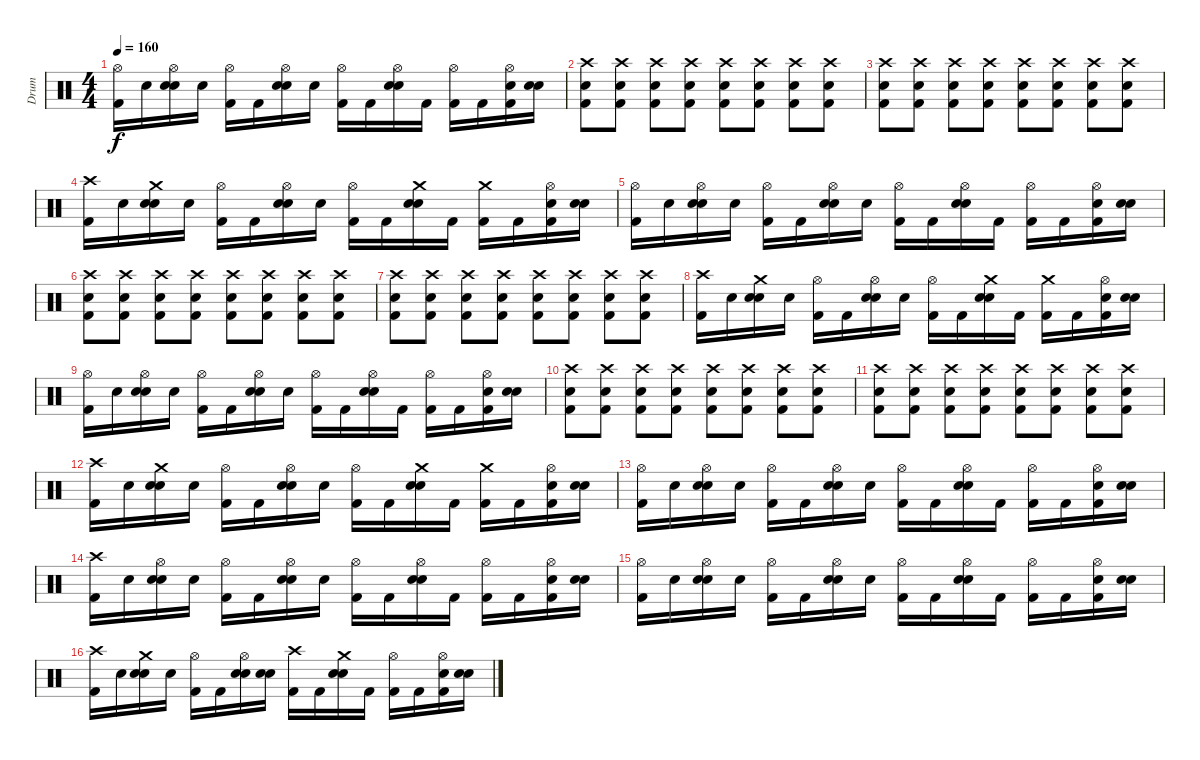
\track ("Drum" "Drum") {instrument percussion}
\staff {score}
\articulation defaults
\ts (4 4)
\tempo 160
\clef neutral
\ks c
("Hi-Hat (open)" "Kick (hit) 2").16{dy f} "Snare (hit)"{x}.16 ("Hi-Hat (open)" "Electric Snare (hit)" "Snare (hit)"{x}).16 "Snare (hit)"{x}.16 ("Hi-Hat (open)" "Kick (hit) 2").16 "Kick (hit) 2".16 ("Hi-Hat (open)" "Electric Snare (hit)" "Snare (hit)"{x}).16 "Snare (hit)"{x}.16 ("Hi-Hat (open)" "Kick (hit) 2").16 "Kick (hit) 2".16 ("Hi-Hat (open)" "Electric Snare (hit)" "Snare (hit)"{x}).16 "Kick (hit) 2".16 ("Hi-Hat (open)" "Kick (hit) 2"{x}).16 "Kick (hit) 2".16 ("Hi-Hat (open)" "Electric Snare (hit)" "Kick (hit) 2"{x}).16 ("Electric Snare (hit)" "Snare (hit)"{x}).16 |
("Crash high (hit)" "Electric Snare (hit)" "Kick (hit) 2").8 ("Crash high (hit)" "Electric Snare (hit)" "Kick (hit) 2").8 ("Crash high (hit)" "Electric Snare (hit)" "Kick (hit) 2").8 ("Crash high (hit)" "Electric Snare (hit)" "Kick (hit) 2").8 ("Crash high (hit)" "Electric Snare (hit)" "Kick (hit) 2").8 ("Crash high (hit)" "Electric Snare (hit)" "Kick (hit) 2").8 ("Crash high (hit)" "Electric Snare (hit)" "Kick (hit) 2").8 ("Crash high (hit)" "Electric Snare (hit)" "Kick (hit) 2").8 |
("Crash high (hit)" "Electric Snare (hit)" "Kick (hit) 2").8 ("Crash high (hit)" "Electric Snare (hit)" "Kick (hit) 2").8 ("Crash high (hit)" "Electric Snare (hit)" "Kick (hit) 2").8 ("Crash high (hit)" "Electric Snare (hit)" "Kick (hit) 2").8 ("Crash high (hit)" "Electric Snare (hit)" "Kick (hit) 2").8 ("Crash high (hit)" "Electric Snare (hit)" "Kick (hit) 2").8 ("Crash high (hit)" "Electric Snare (hit)" "Kick (hit) 2").8 ("Crash high (hit)" "Electric Snare (hit)" "Kick (hit) 2").8 |
("Crash high (hit)" "Kick (hit) 2").16 "Snare (hit)"{x}.16 ("Crash medium (hit)" "Electric Snare (hit)" "Snare (hit)"{x}).16 "Snare (hit)"{x}.16 ("Hi-Hat (open)" "Kick (hit) 2").16 "Kick (hit) 2".16 ("Hi-Hat (open)" "Electric Snare (hit)" "Snare (hit)"{x}).16 "Snare (hit)"{x}.16 ("Hi-Hat (open)" "Kick (hit) 2").16 "Kick (hit) 2".16 ("Crash medium (hit)" "Electric Snare (hit)" "Snare (hit)"{x}).16 "Kick (hit) 2".16 ("Crash medium (hit)" "Kick (hit) 2"{x}).16 "Kick (hit) 2".16 ("Hi-Hat (open)" "Electric Snare (hit)" "Kick (hit) 2"{x}).16 ("Electric Snare (hit)" "Snare (hit)"{x}).16 |
("Hi-Hat (open)" "Kick (hit) 2").16 "Snare (hit)"{x}.16 ("Hi-Hat (open)" "Electric Snare (hit)" "Snare (hit)"{x}).16 "Snare (hit)"{x}.16 ("Hi-Hat (open)" "Kick (hit) 2").16 "Kick (hit) 2".16 ("Hi-Hat (open)" "Electric Snare (hit)" "Snare (hit)"{x}).16 "Snare (hit)"{x}.16 ("Hi-Hat (open)" "Kick (hit) 2").16 "Kick (hit) 2".16 ("Hi-Hat (open)" "Electric Snare (hit)" "Snare (hit)"{x}).16 "Kick (hit) 2".16 ("Hi-Hat (open)" "Kick (hit) 2"{x}).16 "Kick (hit) 2".16 ("Hi-Hat (open)" "Electric Snare (hit)" "Kick (hit) 2"{x}).16 ("Electric Snare (hit)" "Snare (hit)"{x}).16 |
("Crash high (hit)" "Electric Snare (hit)" "Kick (hit) 2").8 ("Crash high (hit)" "Electric Snare (hit)" "Kick (hit) 2").8 ("Crash high (hit)" "Electric Snare (hit)" "Kick (hit) 2").8 ("Crash high (hit)" "Electric Snare (hit)" "Kick (hit) 2").8 ("Crash high (hit)" "Electric Snare (hit)" "Kick (hit) 2").8 ("Crash high (hit)" "Electric Snare (hit)" "Kick (hit) 2").8 ("Crash high (hit)" "Electric Snare (hit)" "Kick (hit) 2").8 ("Crash high (hit)" "Electric Snare (hit)" "Kick (hit) 2").8 |
("Crash high (hit)" "Electric Snare (hit)" "Kick (hit) 2").8 ("Crash high (hit)" "Electric Snare (hit)" "Kick (hit) 2").8 ("Crash high (hit)" "Electric Snare (hit)" "Kick (hit) 2").8 ("Crash high (hit)" "Electric Snare (hit)" "Kick (hit) 2").8 ("Crash high (hit)" "Electric Snare (hit)" "Kick (hit) 2").8 ("Crash high (hit)" "Electric Snare (hit)" "Kick (hit) 2").8 ("Crash high (hit)" "Electric Snare (hit)" "Kick (hit) 2").8 ("Crash high (hit)" "Electric Snare (hit)" "Kick (hit) 2").8 |
("Crash high (hit)" "Kick (hit) 2").16 "Snare (hit)"{x}.16 ("Crash medium (hit)" "Electric Snare (hit)" "Snare (hit)"{x}).16 "Snare (hit)"{x}.16 ("Hi-Hat (open)" "Kick (hit) 2").16 "Kick (hit) 2".16 ("Hi-Hat (open)" "Electric Snare (hit)" "Snare (hit)"{x}).16 "Snare (hit)"{x}.16 ("Hi-Hat (open)" "Kick (hit) 2").16 "Kick (hit) 2".16 ("Crash medium (hit)" "Electric Snare (hit)" "Snare (hit)"{x}).16 "Kick (hit) 2".16 ("Crash medium (hit)" "Kick (hit) 2"{x}).16 "Kick (hit) 2".16 ("Hi-Hat (open)" "Electric Snare (hit)" "Kick (hit) 2"{x}).16 ("Electric Snare (hit)" "Snare (hit)"{x}).16 |
("Hi-Hat (open)" "Kick (hit) 2").16 "Snare (hit)"{x}.16 ("Hi-Hat (open)" "Electric Snare (hit)" "Snare (hit)"{x}).16 "Snare (hit)"{x}.16 ("Hi-Hat (open)" "Kick (hit) 2").16 "Kick (hit) 2".16 ("Hi-Hat (open)" "Electric Snare (hit)" "Snare (hit)"{x}).16 "Snare (hit)"{x}.16 ("Hi-Hat (open)" "Kick (hit) 2").16 "Kick (hit) 2".16 ("Hi-Hat (open)" "Electric Snare (hit)" "Snare (hit)"{x}).16 "Kick (hit) 2".16 ("Hi-Hat (open)" "Kick (hit) 2"{x}).16 "Kick (hit) 2".16 ("Hi-Hat (open)" "Electric Snare (hit)" "Kick (hit) 2"{x}).16 ("Electric Snare (hit)" "Snare (hit)"{x}).16 |
("Crash high (hit)" "Electric Snare (hit)" "Kick (hit) 2").8 ("Crash high (hit)" "Electric Snare (hit)" "Kick (hit) 2").8 ("Crash high (hit)" "Electric Snare (hit)" "Kick (hit) 2").8 ("Crash high (hit)" "Electric Snare (hit)" "Kick (hit) 2").8 ("Crash high (hit)" "Electric Snare (hit)" "Kick (hit) 2").8 ("Crash high (hit)" "Electric Snare (hit)" "Kick (hit) 2").8 ("Crash high (hit)" "Electric Snare (hit)" "Kick (hit) 2").8 ("Crash high (hit)" "Electric Snare (hit)" "Kick (hit) 2").8 |
("Crash high (hit)" "Electric Snare (hit)" "Kick (hit) 2").8 ("Crash high (hit)" "Electric Snare (hit)" "Kick (hit) 2").8 ("Crash high (hit)" "Electric Snare (hit)" "Kick (hit) 2").8 ("Crash high (hit)" "Electric Snare (hit)" "Kick (hit) 2").8 ("Crash high (hit)" "Electric Snare (hit)" "Kick (hit) 2").8 ("Crash high (hit)" "Electric Snare (hit)" "Kick (hit) 2").8 ("Crash high (hit)" "Electric Snare (hit)" "Kick (hit) 2").8 ("Crash high (hit)" "Electric Snare (hit)" "Kick (hit) 2").8 |
("Crash high (hit)" "Kick (hit) 2").16 "Snare (hit)"{x}.16 ("Crash medium (hit)" "Electric Snare (hit)" "Snare (hit)"{x}).16 "Snare (hit)"{x}.16 ("Hi-Hat (open)" "Kick (hit) 2").16 "Kick (hit) 2".16 ("Hi-Hat (open)" "Electric Snare (hit)" "Snare (hit)"{x}).16 "Snare (hit)"{x}.16 ("Hi-Hat (open)" "Kick (hit) 2").16 "Kick (hit) 2".16 ("Crash medium (hit)" "Electric Snare (hit)" "Snare (hit)"{x}).16 "Kick (hit) 2".16 ("Crash medium (hit)" "Kick (hit) 2"{x}).16 "Kick (hit) 2".16 ("Hi-Hat (open)" "Electric Snare (hit)" "Kick (hit) 2"{x}).16 ("Electric Snare (hit)" "Snare (hit)"{x}).16 |
("Hi-Hat (open)" "Kick (hit) 2").16 "Snare (hit)"{x}.16 ("Hi-Hat (open)" "Electric Snare (hit)" "Snare (hit)"{x}).16 "Snare (hit)"{x}.16 ("Hi-Hat (open)" "Kick (hit) 2").16 "Kick (hit) 2".16 ("Hi-Hat (open)" "Electric Snare (hit)" "Snare (hit)"{x}).16 "Snare (hit)"{x}.16 ("Hi-Hat (open)" "Kick (hit) 2").16 "Kick (hit) 2".16 ("Hi-Hat (open)" "Electric Snare (hit)" "Snare (hit)"{x}).16 "Kick (hit) 2".16 ("Hi-Hat (open)" "Kick (hit) 2"{x}).16 "Kick (hit) 2".16 ("Hi-Hat (open)" "Electric Snare (hit)" "Kick (hit) 2"{x}).16 ("Electric Snare (hit)" "Snare (hit)"{x}).16 |
("Crash high (hit)" "Kick (hit) 2").16 "Snare (hit)"{x}.16 ("Hi-Hat (open)" "Electric Snare (hit)" "Snare (hit)"{x}).16 "Snare (hit)"{x}.16 ("Hi-Hat (open)" "Kick (hit) 2").16 "Kick (hit) 2".16 ("Hi-Hat (open)" "Electric Snare (hit)" "Snare (hit)"{x}).16 "Snare (hit)"{x}.16 ("Hi-Hat (open)" "Kick (hit) 2").16 "Kick (hit) 2".16 ("Hi-Hat (open)" "Electric Snare (hit)" "Snare (hit)"{x}).16 "Kick (hit) 2".16 ("Hi-Hat (open)" "Kick (hit) 2"{x}).16 "Kick (hit) 2".16 ("Hi-Hat (open)" "Electric Snare (hit)" "Kick (hit) 2"{x}).16 ("Electric Snare (hit)" "Snare (hit)"{x}).16 |
("Hi-Hat (open)" "Kick (hit) 2").16 "Snare (hit)"{x}.16 ("Hi-Hat (open)" "Electric Snare (hit)" "Snare (hit)"{x}).16 "Snare (hit)"{x}.16 ("Hi-Hat (open)" "Kick (hit) 2").16 "Kick (hit) 2".16 ("Hi-Hat (open)" "Electric Snare (hit)" "Snare (hit)"{x}).16 "Snare (hit)"{x}.16 ("Hi-Hat (open)" "Kick (hit) 2").16 "Kick (hit) 2".16 ("Hi-Hat (open)" "Electric Snare (hit)" "Snare (hit)"{x}).16 "Kick (hit) 2".16 ("Hi-Hat (open)" "Kick (hit) 2"{x}).16 "Kick (hit) 2".16 ("Hi-Hat (open)" "Electric Snare (hit)" "Kick (hit) 2"{x}).16 ("Electric Snare (hit)" "Snare (hit)"{x}).16 |
("Crash high (hit)" "Kick (hit) 2").16 "Snare (hit)"{x}.16 ("Crash medium (hit)" "Electric Snare (hit)" "Snare (hit)"{x}).16 "Snare (hit)"{x}.16 ("Hi-Hat (open)" "Kick (hit) 2").16 "Kick (hit) 2"{x}.16 ("Hi-Hat (open)" "Electric Snare (hit)" "Snare (hit)"{x}).16 ("Electric Snare (hit)" "Snare (hit)"{x}).16 ("Crash high (hit)" "Kick (hit) 2").16 "Kick (hit) 2"{x}.16 ("Crash medium (hit)" "Electric Snare (hit)" "Snare (hit)"{x}).16 "Kick (hit) 2"{x}.16 ("Hi-Hat (open)" "Kick (hit) 2").16 "Kick (hit) 2"{x}.16 ("Hi-Hat (open)" "Electric Snare (hit)" "Kick (hit) 2"{x}).16 ("Electric Snare (hit)" "Snare (hit)"{x}).16
